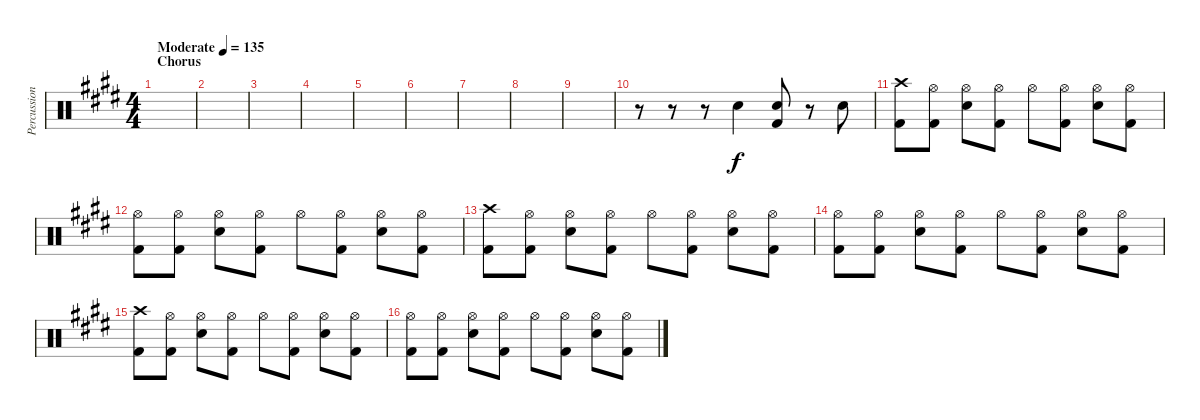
\track ("Percussion" "Percussion") {instrument percussion}
\staff {score}
\articulation defaults
\ts (4 4)
\section ("" "Chorus")
\tempo (135 "Moderate")
\clef neutral
\ks e
|
|
|
|
|
|
|
|
|
r.8 r.8 r.8 "Electric Snare (hit)".4 ("Electric Snare (hit)" "Kick (hit) 2").8 r.8 "Electric Snare (hit)".8 |
("Crash high (hit)" "Kick (hit) 2").8 ("Hi-Hat (open)" "Kick (hit) 2").8 ("Hi-Hat (open)" "Electric Snare (hit)").8 ("Hi-Hat (open)" "Kick (hit) 2").8 "Hi-Hat (open)".8 ("Hi-Hat (open)" "Kick (hit) 2").8 ("Hi-Hat (open)" "Electric Snare (hit)").8 ("Hi-Hat (open)" "Kick (hit) 2").8 |
("Hi-Hat (open)" "Kick (hit) 2").8 ("Hi-Hat (open)" "Kick (hit) 2").8 ("Hi-Hat (open)" "Electric Snare (hit)").8 ("Hi-Hat (open)" "Kick (hit) 2").8 "Hi-Hat (open)".8 ("Hi-Hat (open)" "Kick (hit) 2").8 ("Hi-Hat (open)" "Electric Snare (hit)").8 ("Hi-Hat (open)" "Kick (hit) 2").8 |
("Crash high (hit)" "Kick (hit) 2").8 ("Hi-Hat (open)" "Kick (hit) 2").8 ("Hi-Hat (open)" "Electric Snare (hit)").8 ("Hi-Hat (open)" "Kick (hit) 2").8 "Hi-Hat (open)".8 ("Hi-Hat (open)" "Kick (hit) 2").8 ("Hi-Hat (open)" "Electric Snare (hit)").8 ("Hi-Hat (open)" "Kick (hit) 2").8 |
("Hi-Hat (open)" "Kick (hit) 2").8 ("Hi-Hat (open)" "Kick (hit) 2").8 ("Hi-Hat (open)" "Electric Snare (hit)").8 ("Hi-Hat (open)" "Kick (hit) 2").8 "Hi-Hat (open)".8 ("Hi-Hat (open)" "Kick (hit) 2").8 ("Hi-Hat (open)" "Electric Snare (hit)").8 ("Hi-Hat (open)" "Kick (hit) 2").8 |
("Crash high (hit)" "Kick (hit) 2").8 ("Hi-Hat (open)" "Kick (hit) 2").8 ("Hi-Hat (open)" "Electric Snare (hit)").8 ("Hi-Hat (open)" "Kick (hit) 2").8 "Hi-Hat (open)".8 ("Hi-Hat (open)" "Kick (hit) 2").8 ("Hi-Hat (open)" "Electric Snare (hit)").8 ("Hi-Hat (open)" "Kick (hit) 2").8 |
("Hi-Hat (open)" "Kick (hit) 2").8 ("Hi-Hat (open)" "Kick (hit) 2").8 ("Hi-Hat (open)" "Electric Snare (hit)").8 ("Hi-Hat (open)" "Kick (hit) 2").8 "Hi-Hat (open)".8 ("Hi-Hat (open)" "Kick (hit) 2").8 ("Hi-Hat (open)" "Electric Snare (hit)").8 ("Hi-Hat (open)" "Kick (hit) 2").8
